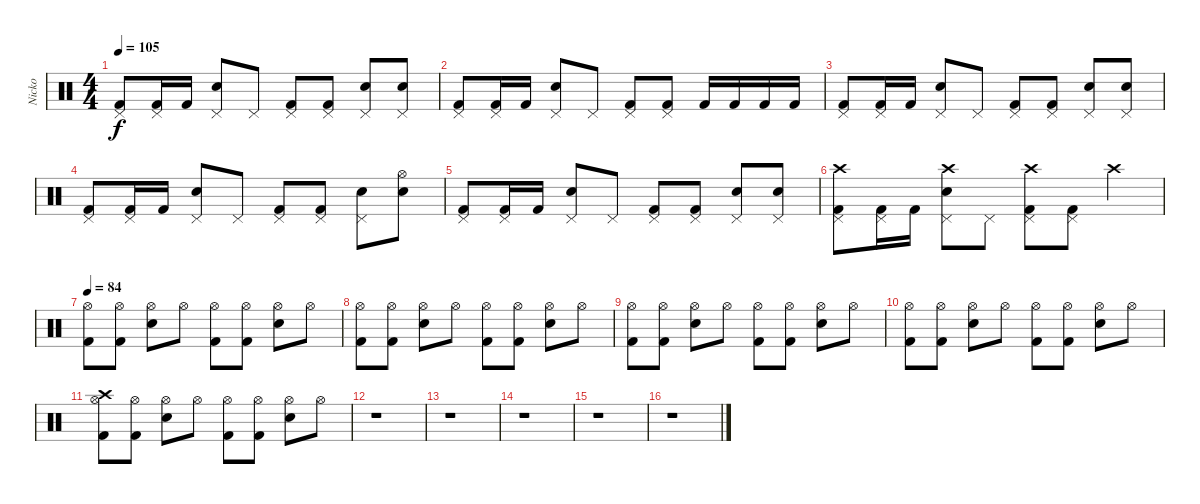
\track ("Nicko" "Nicko") {instrument percussion}
\staff {score}
\articulation defaults
\ts (4 4)
\tempo 105
\clef neutral
\ks c
("Kick (hit) 2" "Pedal Hi-Hat (hit)").8{dy f} ("Kick (hit) 2" "Pedal Hi-Hat (hit)").16 "Kick (hit) 2".16 ("Snare (hit) 2" "Pedal Hi-Hat (hit)").8 "Pedal Hi-Hat (hit)".8 ("Kick (hit) 2" "Pedal Hi-Hat (hit)").8 ("Kick (hit) 2" "Pedal Hi-Hat (hit)").8 ("Snare (hit) 2" "Pedal Hi-Hat (hit)").8 ("Snare (hit) 2" "Pedal Hi-Hat (hit)").8 |
("Kick (hit) 2" "Pedal Hi-Hat (hit)").8 ("Kick (hit) 2" "Pedal Hi-Hat (hit)").16 "Kick (hit) 2".16 ("Snare (hit) 2" "Pedal Hi-Hat (hit)").8 "Pedal Hi-Hat (hit)".8 ("Kick (hit) 2" "Pedal Hi-Hat (hit)").8 ("Kick (hit) 2" "Pedal Hi-Hat (hit)").8 "Kick (hit) 2".16 "Kick (hit) 2".16 "Kick (hit) 2".16 "Kick (hit) 2".16 |
("Kick (hit) 2" "Pedal Hi-Hat (hit)").8 ("Kick (hit) 2" "Pedal Hi-Hat (hit)").16 "Kick (hit) 2".16 ("Snare (hit) 2" "Pedal Hi-Hat (hit)").8 "Pedal Hi-Hat (hit)".8 ("Kick (hit) 2" "Pedal Hi-Hat (hit)").8 ("Kick (hit) 2" "Pedal Hi-Hat (hit)").8 ("Snare (hit) 2" "Pedal Hi-Hat (hit)").8 ("Snare (hit) 2" "Pedal Hi-Hat (hit)").8 |
("Kick (hit) 2" "Pedal Hi-Hat (hit)").8 ("Kick (hit) 2" "Pedal Hi-Hat (hit)").16 "Kick (hit) 2".16 ("Snare (hit) 2" "Pedal Hi-Hat (hit)").8 "Pedal Hi-Hat (hit)".8 ("Kick (hit) 2" "Pedal Hi-Hat (hit)").8 ("Kick (hit) 2" "Pedal Hi-Hat (hit)").8 ("Snare (hit) 2" "Pedal Hi-Hat (hit)").8 ("Snare (hit) 2" "Hi-Hat (open)").8 |
("Kick (hit) 2" "Pedal Hi-Hat (hit)").8 ("Kick (hit) 2" "Pedal Hi-Hat (hit)").16 "Kick (hit) 2".16 ("Snare (hit) 2" "Pedal Hi-Hat (hit)").8 "Pedal Hi-Hat (hit)".8 ("Kick (hit) 2" "Pedal Hi-Hat (hit)").8 ("Kick (hit) 2" "Pedal Hi-Hat (hit)").8 ("Snare (hit) 2" "Pedal Hi-Hat (hit)").8 ("Snare (hit) 2" "Pedal Hi-Hat (hit)").8 |
("Kick (hit) 2" "Pedal Hi-Hat (hit)" "Crash high (hit)").8 ("Kick (hit) 2" "Pedal Hi-Hat (hit)").16 "Kick (hit) 2".16 ("Snare (hit) 2" "Pedal Hi-Hat (hit)" "Crash high (hit)").8 "Pedal Hi-Hat (hit)".8 ("Kick (hit) 2" "Pedal Hi-Hat (hit)" "Crash high (hit)").8 ("Kick (hit) 2" "Pedal Hi-Hat (hit)").8 "Crash high (hit)".4 |
\tempo 84
("Kick (hit) 2" "Hi-Hat (open)").8 ("Kick (hit) 2" "Hi-Hat (open)").8 ("Snare (hit) 2" "Hi-Hat (open)").8 "Hi-Hat (open)".8 ("Kick (hit) 2" "Hi-Hat (open)").8 ("Kick (hit) 2" "Hi-Hat (open)").8 ("Snare (hit) 2" "Hi-Hat (open)").8 "Hi-Hat (open)".8 |
("Kick (hit) 2" "Hi-Hat (open)").8 ("Kick (hit) 2" "Hi-Hat (open)").8 ("Snare (hit) 2" "Hi-Hat (open)").8 "Hi-Hat (open)".8 ("Kick (hit) 2" "Hi-Hat (open)").8 ("Kick (hit) 2" "Hi-Hat (open)").8 ("Snare (hit) 2" "Hi-Hat (open)").8 "Hi-Hat (open)".8 |
("Kick (hit) 2" "Hi-Hat (open)").8 ("Kick (hit) 2" "Hi-Hat (open)").8 ("Snare (hit) 2" "Hi-Hat (open)").8 "Hi-Hat (open)".8 ("Kick (hit) 2" "Hi-Hat (open)").8 ("Kick (hit) 2" "Hi-Hat (open)").8 ("Snare (hit) 2" "Hi-Hat (open)").8 "Hi-Hat (open)".8 |
("Kick (hit) 2" "Hi-Hat (open)").8 ("Kick (hit) 2" "Hi-Hat (open)").8 ("Snare (hit) 2" "Hi-Hat (open)").8 "Hi-Hat (open)".8 ("Kick (hit) 2" "Hi-Hat (open)").8 ("Kick (hit) 2" "Hi-Hat (open)").8 ("Snare (hit) 2" "Hi-Hat (open)").8 "Hi-Hat (open)".8 |
("Kick (hit) 2" "Hi-Hat (open)" "Crash high (hit)").8 ("Kick (hit) 2" "Hi-Hat (open)").8 ("Snare (hit) 2" "Hi-Hat (open)").8 "Hi-Hat (open)".8 ("Kick (hit) 2" "Hi-Hat (open)").8 ("Kick (hit) 2" "Hi-Hat (open)").8 ("Snare (hit) 2" "Hi-Hat (open)").8 "Hi-Hat (open)".8 |
r.1 |
r.1 |
r.1 |
r.1 |
r.1
